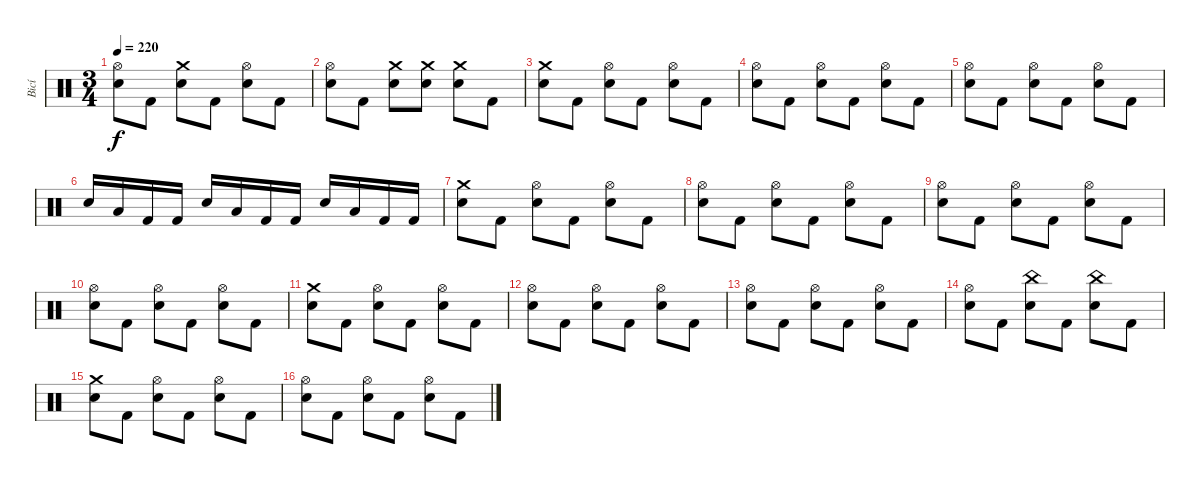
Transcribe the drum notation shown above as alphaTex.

\track ("Bicí" "Bicí") {instrument percussion}
\staff {score}
\articulation defaults
\ts (3 4)
\tempo 220
\clef neutral
\ks c
("Hi-Hat (open)" "Electric Snare (hit)").8{dy f} "Kick (hit) 2".8 ("Crash medium (hit)" "Electric Snare (hit)").8 "Kick (hit) 2".8 ("Hi-Hat (open)" "Electric Snare (hit)").8 "Kick (hit) 2".8 |
("Hi-Hat (open)" "Electric Snare (hit)").8 "Kick (hit) 2".8 ("Crash medium (hit)" "Electric Snare (hit)").8 ("Crash medium (hit)" "Electric Snare (hit)").8 ("Crash medium (hit)" "Electric Snare (hit)").8 "Kick (hit) 2".8 |
("Crash medium (hit)" "Electric Snare (hit)").8 "Kick (hit) 2".8 ("Hi-Hat (open)" "Electric Snare (hit)").8 "Kick (hit) 2".8 ("Hi-Hat (open)" "Electric Snare (hit)").8 "Kick (hit) 2".8 |
("Hi-Hat (open)" "Electric Snare (hit)").8 "Kick (hit) 2".8 ("Hi-Hat (open)" "Electric Snare (hit)").8 "Kick (hit) 2".8 ("Hi-Hat (open)" "Electric Snare (hit)").8 "Kick (hit) 2".8 |
("Hi-Hat (open)" "Electric Snare (hit)").8 "Kick (hit) 2".8 ("Hi-Hat (open)" "Electric Snare (hit)").8 "Kick (hit) 2".8 ("Hi-Hat (open)" "Electric Snare (hit)").8 "Kick (hit) 2".8 |
"Electric Snare (hit)".16 "Low Tom (hit)".16 "Kick (hit) 2".16 "Kick (hit) 2".16 "Electric Snare (hit)".16 "Low Tom (hit)".16 "Kick (hit) 2".16 "Kick (hit) 2".16 "Electric Snare (hit)".16 "Low Tom (hit)".16 "Kick (hit) 2".16 "Kick (hit) 2".16 |
("Crash medium (hit)" "Electric Snare (hit)").8 "Kick (hit) 2".8 ("Hi-Hat (open)" "Electric Snare (hit)").8 "Kick (hit) 2".8 ("Hi-Hat (open)" "Electric Snare (hit)").8 "Kick (hit) 2".8 |
("Hi-Hat (open)" "Electric Snare (hit)").8 "Kick (hit) 2".8 ("Hi-Hat (open)" "Electric Snare (hit)").8 "Kick (hit) 2".8 ("Hi-Hat (open)" "Electric Snare (hit)").8 "Kick (hit) 2".8 |
("Hi-Hat (open)" "Electric Snare (hit)").8 "Kick (hit) 2".8 ("Hi-Hat (open)" "Electric Snare (hit)").8 "Kick (hit) 2".8 ("Hi-Hat (open)" "Electric Snare (hit)").8 "Kick (hit) 2".8 |
("Hi-Hat (open)" "Electric Snare (hit)").8 "Kick (hit) 2".8 ("Hi-Hat (open)" "Electric Snare (hit)").8 "Kick (hit) 2".8 ("Hi-Hat (open)" "Electric Snare (hit)").8 "Kick (hit) 2".8 |
("Crash medium (hit)" "Electric Snare (hit)").8 "Kick (hit) 2".8 ("Hi-Hat (open)" "Electric Snare (hit)").8 "Kick (hit) 2".8 ("Hi-Hat (open)" "Electric Snare (hit)").8 "Kick (hit) 2".8 |
("Hi-Hat (open)" "Electric Snare (hit)").8 "Kick (hit) 2".8 ("Hi-Hat (open)" "Electric Snare (hit)").8 "Kick (hit) 2".8 ("Hi-Hat (open)" "Electric Snare (hit)").8 "Kick (hit) 2".8 |
("Hi-Hat (open)" "Electric Snare (hit)").8 "Kick (hit) 2".8 ("Hi-Hat (open)" "Electric Snare (hit)").8 "Kick (hit) 2".8 ("Hi-Hat (open)" "Electric Snare (hit)").8 "Kick (hit) 2".8 |
("Hi-Hat (open)" "Electric Snare (hit)").8 "Kick (hit) 2".8 ("China (hit)" "Electric Snare (hit)").8 "Kick (hit) 2".8 ("China (hit)" "Electric Snare (hit)").8 "Kick (hit) 2".8 |
("Crash medium (hit)" "Electric Snare (hit)").8 "Kick (hit) 2".8 ("Hi-Hat (open)" "Electric Snare (hit)").8 "Kick (hit) 2".8 ("Hi-Hat (open)" "Electric Snare (hit)").8 "Kick (hit) 2".8 |
("Hi-Hat (open)" "Electric Snare (hit)").8 "Kick (hit) 2".8 ("Hi-Hat (open)" "Electric Snare (hit)").8 "Kick (hit) 2".8 ("Hi-Hat (open)" "Electric Snare (hit)").8 "Kick (hit) 2".8
